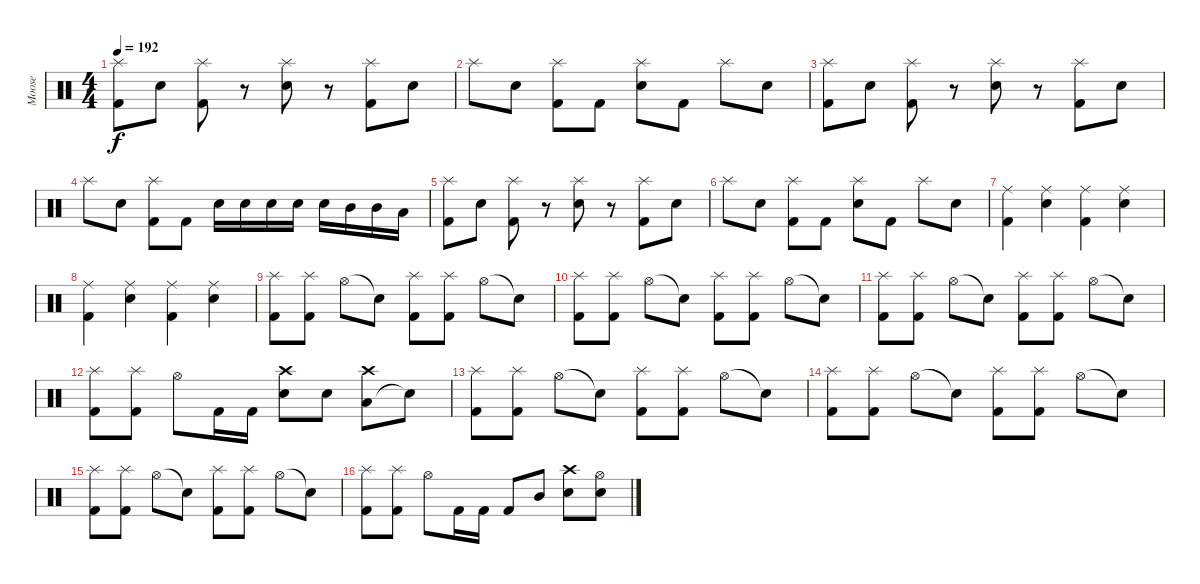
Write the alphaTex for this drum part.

\track ("Moose" "Moose") {instrument percussion}
\staff {score}
\articulation defaults
\ts (4 4)
\tempo 192
\clef neutral
\ks c
("Kick (hit) 2" "Splash (hit)").8{dy f} "Snare (hit) 2".8 ("Kick (hit) 2" "Splash (hit)").8 r.8 ("Electric Snare (hit)" "Splash (hit)").8 r.8 ("Kick (hit) 2" "Splash (hit)").8 "Snare (hit) 2".8 |
"Splash (hit)".8 "Snare (hit) 2".8 ("Kick (hit) 2" "Splash (hit)").8 "Kick (hit) 2".8 ("Electric Snare (hit)" "Splash (hit)").8 "Kick (hit) 2".8 "Splash (hit)".8 "Snare (hit) 2".8 |
("Kick (hit) 2" "Splash (hit)").8 "Snare (hit) 2".8 ("Kick (hit) 2" "Splash (hit)").8 r.8 ("Electric Snare (hit)" "Splash (hit)").8 r.8 ("Kick (hit) 2" "Splash (hit)").8 "Snare (hit) 2".8 |
"Splash (hit)".8 "Snare (hit) 2".8 ("Kick (hit) 2" "Splash (hit)").8 "Kick (hit) 2".8 "Electric Snare (hit)".16 "Electric Snare (hit)".16 "Electric Snare (hit)".16 "Snare (hit) 2".16 "Snare (hit) 2".16 "Mid Tom (hit)".16 "Mid Tom (hit)".16 "Low Tom (hit)".16 |
("Kick (hit) 2" "Splash (hit)").8 "Snare (hit) 2".8 ("Kick (hit) 2" "Splash (hit)").8 r.8 ("Electric Snare (hit)" "Splash (hit)").8 r.8 ("Kick (hit) 2" "Splash (hit)").8 "Snare (hit) 2".8 |
"Splash (hit)".8 "Snare (hit) 2".8 ("Kick (hit) 2" "Splash (hit)").8 "Kick (hit) 2".8 ("Electric Snare (hit)" "Splash (hit)").8 "Kick (hit) 2".8 "Splash (hit)".8 "Snare (hit) 2".8 |
("Kick (hit) 2" "Ride (middle)").4 ("Snare (hit) 2" "Ride (middle)").4 ("Kick (hit) 2" "Ride (middle)").4 ("Snare (hit) 2" "Ride (middle)").4 |
("Kick (hit) 2" "Ride (middle)").4 ("Snare (hit) 2" "Ride (middle)").4 ("Kick (hit) 2" "Ride (middle)").4 ("Snare (hit) 2" "Ride (middle)").4 |
("Kick (hit) 2" "Splash (hit)").8 ("Kick (hit) 2" "Splash (hit)").8 "Hi-Hat (open)".8 "Snare (hit)"{t}.8 ("Kick (hit) 2" "Splash (hit)").8 ("Kick (hit) 2" "Splash (hit)").8 "Hi-Hat (open)".8 "Snare (hit)"{t}.8 |
("Kick (hit) 2" "Splash (hit)").8 ("Kick (hit) 2" "Splash (hit)").8 "Hi-Hat (open)".8 "Snare (hit)"{t}.8 ("Kick (hit) 2" "Splash (hit)").8 ("Kick (hit) 2" "Splash (hit)").8 "Hi-Hat (open)".8 "Snare (hit)"{t}.8 |
("Kick (hit) 2" "Splash (hit)").8 ("Kick (hit) 2" "Splash (hit)").8 "Hi-Hat (open)".8 "Snare (hit)"{t}.8 ("Kick (hit) 2" "Splash (hit)").8 ("Kick (hit) 2" "Splash (hit)").8 "Hi-Hat (open)".8 "Snare (hit)"{t}.8 |
("Kick (hit) 2" "Splash (hit)").8 ("Kick (hit) 2" "Splash (hit)").8 "Hi-Hat (open)".8 "Kick (hit) 2".16 "Kick (hit) 2".16 ("Electric Snare (hit)" "Crash high (hit)").8 "Electric Snare (hit)".8 ("Low Tom (hit)" "Crash high (hit)").8 "Snare (hit)"{t}.8 |
("Kick (hit) 2" "Splash (hit)").8 ("Kick (hit) 2" "Splash (hit)").8 "Hi-Hat (open)".8 "Snare (hit)"{t}.8 ("Kick (hit) 2" "Splash (hit)").8 ("Kick (hit) 2" "Splash (hit)").8 "Hi-Hat (open)".8 "Snare (hit)"{t}.8 |
("Kick (hit) 2" "Splash (hit)").8 ("Kick (hit) 2" "Splash (hit)").8 "Hi-Hat (open)".8 "Snare (hit)"{t}.8 ("Kick (hit) 2" "Splash (hit)").8 ("Kick (hit) 2" "Splash (hit)").8 "Hi-Hat (open)".8 "Snare (hit)"{t}.8 |
("Kick (hit) 2" "Splash (hit)").8 ("Kick (hit) 2" "Splash (hit)").8 "Hi-Hat (open)".8 "Snare (hit)"{t}.8 ("Kick (hit) 2" "Splash (hit)").8 ("Kick (hit) 2" "Splash (hit)").8 "Hi-Hat (open)".8 "Snare (hit)"{t}.8 |
("Kick (hit) 2" "Splash (hit)").8 ("Kick (hit) 2" "Splash (hit)").8 "Hi-Hat (open)".8 "Kick (hit) 2".16 "Kick (hit) 2".16 "Kick (hit) 2".8 "Mid Tom (hit)".8 ("Electric Snare (hit)" "Crash high (hit)").8 ("Electric Snare (hit)" "Hi-Hat (open)").8
